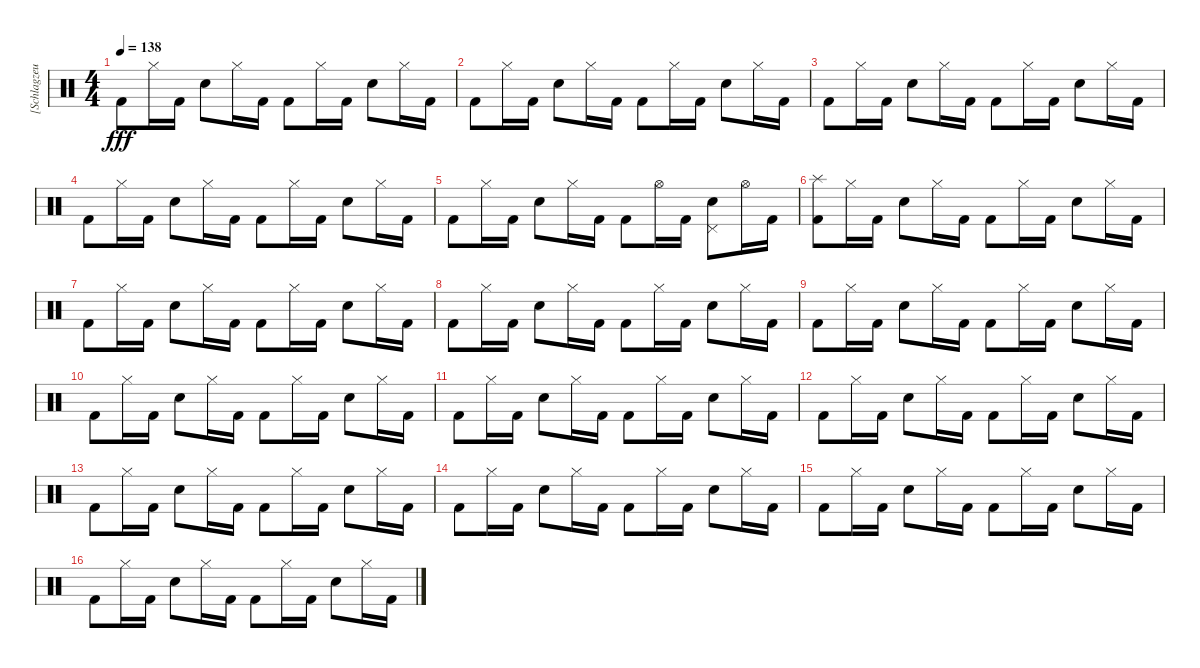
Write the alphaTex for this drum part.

\track ("[Schlagzeug]" "[Schlagzeu") {instrument percussion}
\staff {score}
\articulation defaults
\ts (4 4)
\tempo 138
\clef neutral
\ks c "Kick (hit) 2".8{dy fff} "Hi-Hat (closed)".16 "Kick (hit) 2".16 "Electric Snare (hit)".8 "Hi-Hat (closed)".16 "Kick (hit) 2".16 "Kick (hit) 2".8 "Hi-Hat (closed)".16 "Kick (hit) 2".16 "Electric Snare (hit)".8 "Hi-Hat (closed)".16 "Kick (hit) 2".16
|
"Kick (hit) 2".8 "Hi-Hat (closed)".16 "Kick (hit) 2".16 "Electric Snare (hit)".8 "Hi-Hat (closed)".16 "Kick (hit) 2".16 "Kick (hit) 2".8 "Hi-Hat (closed)".16 "Kick (hit) 2".16 "Electric Snare (hit)".8 "Hi-Hat (closed)".16 "Kick (hit) 2".16 |
"Kick (hit) 2".8 "Hi-Hat (closed)".16 "Kick (hit) 2".16 "Electric Snare (hit)".8 "Hi-Hat (closed)".16 "Kick (hit) 2".16 "Kick (hit) 2".8 "Hi-Hat (closed)".16 "Kick (hit) 2".16 "Electric Snare (hit)".8 "Hi-Hat (closed)".16 "Kick (hit) 2".16 |
"Kick (hit) 2".8 "Hi-Hat (closed)".16 "Kick (hit) 2".16 "Electric Snare (hit)".8 "Hi-Hat (closed)".16 "Kick (hit) 2".16 "Kick (hit) 2".8 "Hi-Hat (closed)".16 "Kick (hit) 2".16 "Electric Snare (hit)".8 "Hi-Hat (closed)".16 "Kick (hit) 2".16 |
"Kick (hit) 2".8 "Hi-Hat (closed)".16 "Kick (hit) 2".16 "Electric Snare (hit)".8 "Hi-Hat (closed)".16 "Kick (hit) 2".16 "Kick (hit) 2".8 "Hi-Hat (open)".16 "Kick (hit) 2".16 ("Pedal Hi-Hat (hit)" "Electric Snare (hit)").8 "Hi-Hat (open)".16 "Kick (hit) 2".16 |
("Splash (hit)" "Kick (hit) 2").8 "Hi-Hat (closed)".16 "Kick (hit) 2".16 "Electric Snare (hit)".8 "Hi-Hat (closed)".16 "Kick (hit) 2".16 "Kick (hit) 2".8 "Hi-Hat (closed)".16 "Kick (hit) 2".16 "Electric Snare (hit)".8 "Hi-Hat (closed)".16 "Kick (hit) 2".16 |
"Kick (hit) 2".8 "Hi-Hat (closed)".16 "Kick (hit) 2".16 "Electric Snare (hit)".8 "Hi-Hat (closed)".16 "Kick (hit) 2".16 "Kick (hit) 2".8 "Hi-Hat (closed)".16 "Kick (hit) 2".16 "Electric Snare (hit)".8 "Hi-Hat (closed)".16 "Kick (hit) 2".16 |
"Kick (hit) 2".8 "Hi-Hat (closed)".16 "Kick (hit) 2".16 "Electric Snare (hit)".8 "Hi-Hat (closed)".16 "Kick (hit) 2".16 "Kick (hit) 2".8 "Hi-Hat (closed)".16 "Kick (hit) 2".16 "Electric Snare (hit)".8 "Hi-Hat (closed)".16 "Kick (hit) 2".16 |
"Kick (hit) 2".8 "Hi-Hat (closed)".16 "Kick (hit) 2".16 "Electric Snare (hit)".8 "Hi-Hat (closed)".16 "Kick (hit) 2".16 "Kick (hit) 2".8 "Hi-Hat (closed)".16 "Kick (hit) 2".16 "Electric Snare (hit)".8 "Hi-Hat (closed)".16 "Kick (hit) 2".16 |
"Kick (hit) 2".8 "Hi-Hat (closed)".16 "Kick (hit) 2".16 "Electric Snare (hit)".8 "Hi-Hat (closed)".16 "Kick (hit) 2".16 "Kick (hit) 2".8 "Hi-Hat (closed)".16 "Kick (hit) 2".16 "Electric Snare (hit)".8 "Hi-Hat (closed)".16 "Kick (hit) 2".16 |
"Kick (hit) 2".8 "Hi-Hat (closed)".16 "Kick (hit) 2".16 "Electric Snare (hit)".8 "Hi-Hat (closed)".16 "Kick (hit) 2".16 "Kick (hit) 2".8 "Hi-Hat (closed)".16 "Kick (hit) 2".16 "Electric Snare (hit)".8 "Hi-Hat (closed)".16 "Kick (hit) 2".16 |
"Kick (hit) 2".8 "Hi-Hat (closed)".16 "Kick (hit) 2".16 "Electric Snare (hit)".8 "Hi-Hat (closed)".16 "Kick (hit) 2".16 "Kick (hit) 2".8 "Hi-Hat (closed)".16 "Kick (hit) 2".16 "Electric Snare (hit)".8 "Hi-Hat (closed)".16 "Kick (hit) 2".16 |
"Kick (hit) 2".8 "Hi-Hat (closed)".16 "Kick (hit) 2".16 "Electric Snare (hit)".8 "Hi-Hat (closed)".16 "Kick (hit) 2".16 "Kick (hit) 2".8 "Hi-Hat (closed)".16 "Kick (hit) 2".16 "Electric Snare (hit)".8 "Hi-Hat (closed)".16 "Kick (hit) 2".16 |
"Kick (hit) 2".8 "Hi-Hat (closed)".16 "Kick (hit) 2".16 "Electric Snare (hit)".8 "Hi-Hat (closed)".16 "Kick (hit) 2".16 "Kick (hit) 2".8 "Hi-Hat (closed)".16 "Kick (hit) 2".16 "Electric Snare (hit)".8 "Hi-Hat (closed)".16 "Kick (hit) 2".16 |
"Kick (hit) 2".8 "Hi-Hat (closed)".16 "Kick (hit) 2".16 "Electric Snare (hit)".8 "Hi-Hat (closed)".16 "Kick (hit) 2".16 "Kick (hit) 2".8 "Hi-Hat (closed)".16 "Kick (hit) 2".16 "Electric Snare (hit)".8 "Hi-Hat (closed)".16 "Kick (hit) 2".16 |
"Kick (hit) 2".8 "Hi-Hat (closed)".16 "Kick (hit) 2".16 "Electric Snare (hit)".8 "Hi-Hat (closed)".16 "Kick (hit) 2".16 "Kick (hit) 2".8 "Hi-Hat (closed)".16 "Kick (hit) 2".16 "Electric Snare (hit)".8 "Hi-Hat (closed)".16 "Kick (hit) 2".16
